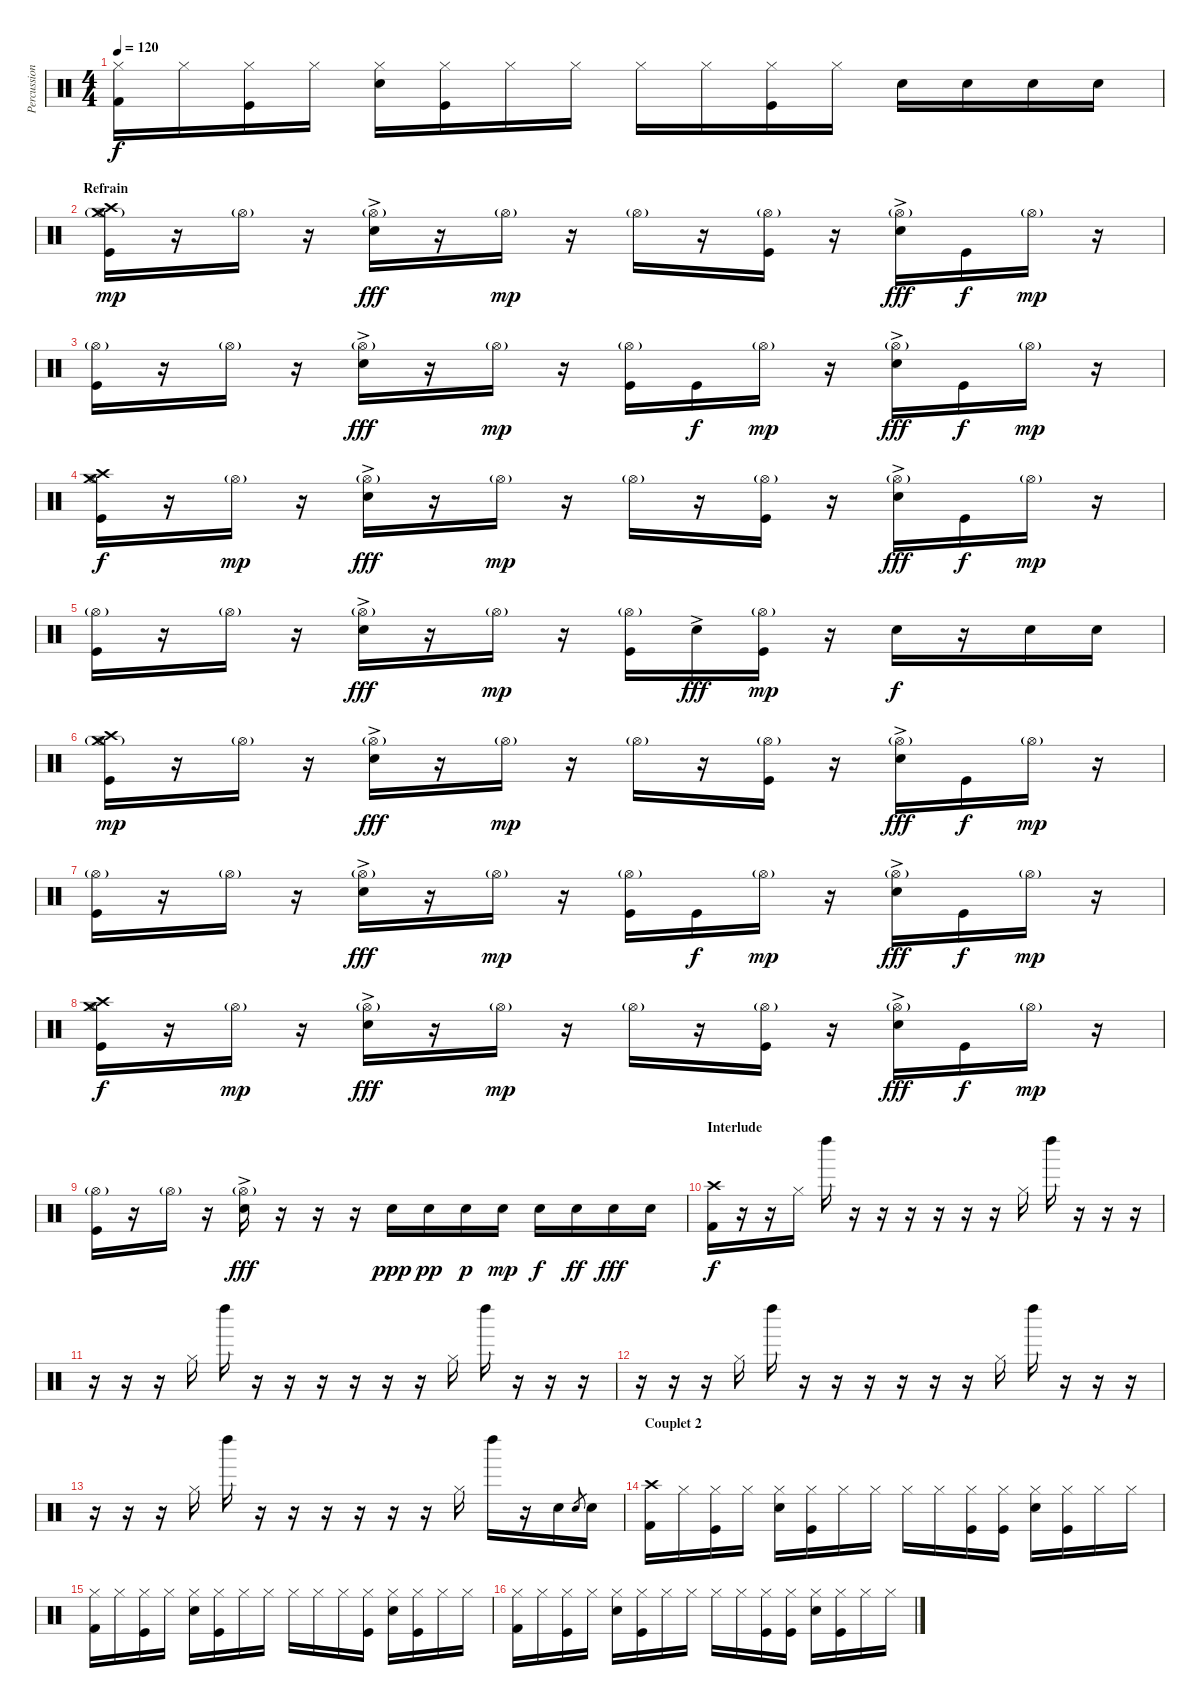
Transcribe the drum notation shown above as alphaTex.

\track ("Percussions" "Percussion") {instrument percussion}
\staff {score}
\articulation defaults
\ts (4 4)
\tempo 120
\clef neutral
\ks c
("Hi-Hat (closed)" "Kick (hit) 2").16{dy f} "Hi-Hat (closed)".16 ("Hi-Hat (closed)" "Kick (hit)").16 "Hi-Hat (closed)".16 ("Hi-Hat (closed)" "Electric Snare (hit)").16 ("Hi-Hat (closed)" "Kick (hit)").16 "Hi-Hat (closed)".16 "Hi-Hat (closed)".16 "Hi-Hat (closed)".16 "Hi-Hat (closed)".16 ("Hi-Hat (closed)" "Kick (hit)").16 "Hi-Hat (closed)".16 "Electric Snare (hit)".16 "Electric Snare (hit)".16 "Electric Snare (hit)".16 "Electric Snare (hit)".16 |
\section ("" "Refrain")
("Crash high (hit)" "Hi-Hat (open)"{g} "Crash medium (hit)" "Kick (hit)").16{dy mp} r.16 "Hi-Hat (open)"{g}.16 r.16 ("Hi-Hat (open)"{g} "Electric Snare (hit)"{ac}).16{dy fff} r.16 "Hi-Hat (open)"{g}.16{dy mp} r.16 "Hi-Hat (open)"{g}.16 r.16 ("Hi-Hat (open)"{g} "Kick (hit)").16 r.16 ("Hi-Hat (open)"{g} "Electric Snare (hit)"{ac}).16{dy fff} "Kick (hit)".16{dy f} "Hi-Hat (open)"{g}.16{dy mp} r.16 |
("Hi-Hat (open)"{g} "Kick (hit)").16 r.16 "Hi-Hat (open)"{g}.16 r.16 ("Hi-Hat (open)"{g} "Electric Snare (hit)"{ac}).16{dy fff} r.16 "Hi-Hat (open)"{g}.16{dy mp} r.16 ("Hi-Hat (open)"{g} "Kick (hit)").16 "Kick (hit)".16{dy f} "Hi-Hat (open)"{g}.16{dy mp} r.16 ("Hi-Hat (open)"{g} "Electric Snare (hit)"{ac}).16{dy fff} "Kick (hit)".16{dy f} "Hi-Hat (open)"{g}.16{dy mp} r.16 |
("Crash high (hit)" "Hi-Hat (open)" "Crash medium (hit)" "Kick (hit)").16{dy f} r.16 "Hi-Hat (open)"{g}.16{dy mp} r.16 ("Hi-Hat (open)"{g} "Electric Snare (hit)"{ac}).16{dy fff} r.16 "Hi-Hat (open)"{g}.16{dy mp} r.16 "Hi-Hat (open)"{g}.16 r.16 ("Hi-Hat (open)"{g} "Kick (hit)").16 r.16 ("Hi-Hat (open)"{g} "Electric Snare (hit)"{ac}).16{dy fff} "Kick (hit)".16{dy f} "Hi-Hat (open)"{g}.16{dy mp} r.16 |
("Hi-Hat (open)"{g} "Kick (hit)").16 r.16 "Hi-Hat (open)"{g}.16 r.16 ("Hi-Hat (open)"{g} "Electric Snare (hit)"{ac}).16{dy fff} r.16 "Hi-Hat (open)"{g}.16{dy mp} r.16 ("Hi-Hat (open)"{g} "Kick (hit)").16 "Electric Snare (hit)"{ac}.16{dy fff} ("Hi-Hat (open)"{g} "Kick (hit)").16{dy mp} r.16 "Electric Snare (hit)".16{dy f} r.16 "Electric Snare (hit)".16 "Electric Snare (hit)".16 |
("Crash high (hit)" "Hi-Hat (open)"{g} "Crash medium (hit)" "Kick (hit)").16{dy mp} r.16 "Hi-Hat (open)"{g}.16 r.16 ("Hi-Hat (open)"{g} "Electric Snare (hit)"{ac}).16{dy fff} r.16 "Hi-Hat (open)"{g}.16{dy mp} r.16 "Hi-Hat (open)"{g}.16 r.16 ("Hi-Hat (open)"{g} "Kick (hit)").16 r.16 ("Hi-Hat (open)"{g} "Electric Snare (hit)"{ac}).16{dy fff} "Kick (hit)".16{dy f} "Hi-Hat (open)"{g}.16{dy mp} r.16 |
("Hi-Hat (open)"{g} "Kick (hit)").16 r.16 "Hi-Hat (open)"{g}.16 r.16 ("Hi-Hat (open)"{g} "Electric Snare (hit)"{ac}).16{dy fff} r.16 "Hi-Hat (open)"{g}.16{dy mp} r.16 ("Hi-Hat (open)"{g} "Kick (hit)").16 "Kick (hit)".16{dy f} "Hi-Hat (open)"{g}.16{dy mp} r.16 ("Hi-Hat (open)"{g} "Electric Snare (hit)"{ac}).16{dy fff} "Kick (hit)".16{dy f} "Hi-Hat (open)"{g}.16{dy mp} r.16 |
("Crash high (hit)" "Hi-Hat (open)" "Crash medium (hit)" "Kick (hit)").16{dy f} r.16 "Hi-Hat (open)"{g}.16{dy mp} r.16 ("Hi-Hat (open)"{g} "Electric Snare (hit)"{ac}).16{dy fff} r.16 "Hi-Hat (open)"{g}.16{dy mp} r.16 "Hi-Hat (open)"{g}.16 r.16 ("Hi-Hat (open)"{g} "Kick (hit)").16 r.16 ("Hi-Hat (open)"{g} "Electric Snare (hit)"{ac}).16{dy fff} "Kick (hit)".16{dy f} "Hi-Hat (open)"{g}.16{dy mp} r.16 |
("Hi-Hat (open)"{g} "Kick (hit)").16 r.16 "Hi-Hat (open)"{g}.16 r.16 ("Hi-Hat (open)"{g} "Electric Snare (hit)"{ac}).16{dy fff} r.16 r.16 r.16 "Electric Snare (hit)".16{dy ppp} "Electric Snare (hit)".16{dy pp} "Electric Snare (hit)".16{dy p} "Electric Snare (hit)".16{dy mp} "Electric Snare (hit)".16{dy f} "Electric Snare (hit)".16{dy ff} "Electric Snare (hit)".16{dy fff} "Electric Snare (hit)".16 |
\section ("" "Interlude")
("Crash high (hit)" "Kick (hit) 2").16{dy f} r.16 r.16 "Hi-Hat (closed)".16 "Left Maraca (hit)".16 r.16 r.16 r.16 r.16 r.16 r.16 "Hi-Hat (closed)".16 "Left Maraca (hit)".16 r.16 r.16 r.16 |
r.16 r.16 r.16 "Hi-Hat (closed)".16 "Left Maraca (hit)".16 r.16 r.16 r.16 r.16 r.16 r.16 "Hi-Hat (closed)".16 "Left Maraca (hit)".16 r.16 r.16 r.16 |
r.16 r.16 r.16 "Hi-Hat (closed)".16 "Left Maraca (hit)".16 r.16 r.16 r.16 r.16 r.16 r.16 "Hi-Hat (closed)".16 "Left Maraca (hit)".16 r.16 r.16 r.16 |
r.16 r.16 r.16 "Hi-Hat (closed)".16 "Left Maraca (hit)".16 r.16 r.16 r.16 r.16 r.16 r.16 "Hi-Hat (closed)".16 "Left Maraca (hit)".16 r.16 "Electric Snare (hit)".16 "Electric Snare (hit)".8{gr} "Electric Snare (hit)".16 |
\section ("" "Couplet 2")
("Crash high (hit)" "Kick (hit) 2").16 "Hi-Hat (closed)".16 ("Hi-Hat (closed)" "Kick (hit)").16 "Hi-Hat (closed)".16 ("Hi-Hat (closed)" "Electric Snare (hit)").16 ("Hi-Hat (closed)" "Kick (hit)").16 "Hi-Hat (closed)".16 "Hi-Hat (closed)".16 "Hi-Hat (closed)".16 "Hi-Hat (closed)".16 ("Hi-Hat (closed)" "Kick (hit)").16 ("Hi-Hat (closed)" "Kick (hit)").16 ("Hi-Hat (closed)" "Electric Snare (hit)").16 ("Hi-Hat (closed)" "Kick (hit)").16 "Hi-Hat (closed)".16 "Hi-Hat (closed)".16 |
("Hi-Hat (closed)" "Kick (hit) 2").16 "Hi-Hat (closed)".16 ("Hi-Hat (closed)" "Kick (hit)").16 "Hi-Hat (closed)".16 ("Hi-Hat (closed)" "Electric Snare (hit)").16 ("Hi-Hat (closed)" "Kick (hit)").16 "Hi-Hat (closed)".16 "Hi-Hat (closed)".16 "Hi-Hat (closed)".16 "Hi-Hat (closed)".16 "Hi-Hat (closed)".16 ("Hi-Hat (closed)" "Kick (hit)").16 ("Hi-Hat (closed)" "Electric Snare (hit)").16 ("Hi-Hat (closed)" "Kick (hit)").16 "Hi-Hat (closed)".16 "Hi-Hat (closed)".16 |
("Hi-Hat (closed)" "Kick (hit) 2").16 "Hi-Hat (closed)".16 ("Hi-Hat (closed)" "Kick (hit)").16 "Hi-Hat (closed)".16 ("Hi-Hat (closed)" "Electric Snare (hit)").16 ("Hi-Hat (closed)" "Kick (hit)").16 "Hi-Hat (closed)".16 "Hi-Hat (closed)".16 "Hi-Hat (closed)".16 "Hi-Hat (closed)".16 ("Hi-Hat (closed)" "Kick (hit)").16 ("Hi-Hat (closed)" "Kick (hit)").16 ("Hi-Hat (closed)" "Electric Snare (hit)").16 ("Hi-Hat (closed)" "Kick (hit)").16 "Hi-Hat (closed)".16 "Hi-Hat (closed)".16
